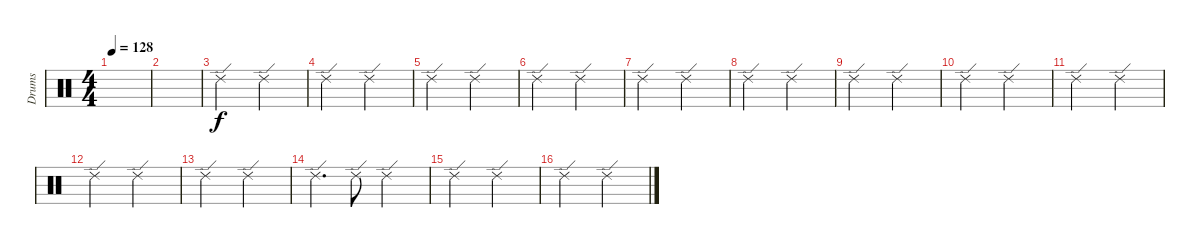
\track ("Drums" "Drums") {instrument percussion}
\staff {score}
\articulation defaults
\ts (4 4)
\tempo 128
\clef neutral
\ks c
|
|
"Ride (edge) 2".2 "Ride (edge) 2".2 |
"Ride (edge) 2".2 "Ride (edge) 2".2 |
"Ride (edge) 2".2 "Ride (edge) 2".2 |
"Ride (edge) 2".2 "Ride (edge) 2".2 |
"Ride (edge) 2".2 "Ride (edge) 2".2 |
"Ride (edge) 2".2 "Ride (edge) 2".2 |
"Ride (edge) 2".2 "Ride (edge) 2".2 |
"Ride (edge) 2".2 "Ride (edge) 2".2 |
"Ride (edge) 2".2 "Ride (edge) 2".2 |
"Ride (edge) 2".2 "Ride (edge) 2".2 |
"Ride (edge) 2".2 "Ride (edge) 2".2 |
"Ride (edge) 2".4{d} "Ride (edge) 2".8 "Ride (edge) 2".2 |
"Ride (edge) 2".2 "Ride (edge) 2".2 |
"Ride (edge) 2".2 "Ride (edge) 2".2
